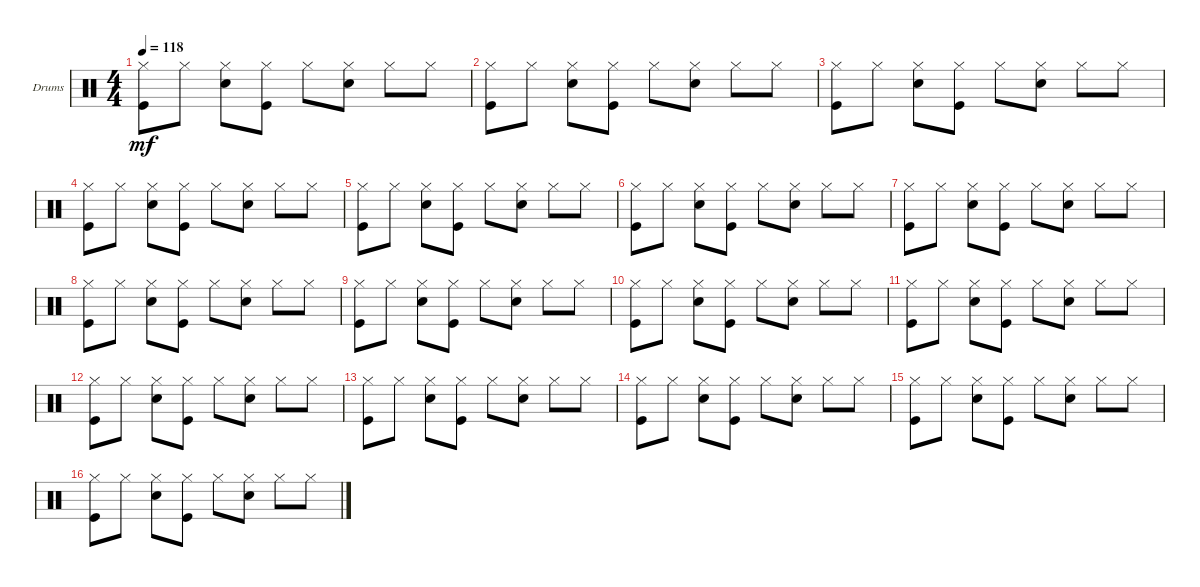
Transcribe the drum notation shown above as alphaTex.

\defaultSystemsLayout 4
\bracketExtendMode groupsimilarinstruments
\firstSystemTrackNameOrientation horizontal
\otherSystemsTrackNameOrientation horizontal
\track ("Drumkit" "Drums") {instrument percussion}
\staff {score}
\articulation defaults
\ts (4 4)
\tempo 118
\clef neutral
\scale
0.474178
\ks c
("Hi-Hat (closed)" "Kick (hit)").8{dy mf} "Hi-Hat (closed)".8 ("Hi-Hat (closed)" "Snare (hit) 2").8 ("Hi-Hat (closed)" "Kick (hit)").8 "Hi-Hat (closed)".8 ("Hi-Hat (closed)" "Snare (hit) 2").8 "Hi-Hat (closed)".8 "Hi-Hat (closed)".8 |
\scale
0.262911 ("Hi-Hat (closed)" "Kick (hit)").8 "Hi-Hat (closed)".8 ("Hi-Hat (closed)" "Snare (hit) 2").8 ("Hi-Hat (closed)" "Kick (hit)").8 "Hi-Hat (closed)".8 ("Hi-Hat (closed)" "Snare (hit) 2").8 "Hi-Hat (closed)".8 "Hi-Hat (closed)".8 |
\scale
0.262911 ("Hi-Hat (closed)" "Kick (hit)").8 "Hi-Hat (closed)".8 ("Hi-Hat (closed)" "Snare (hit) 2").8 ("Hi-Hat (closed)" "Kick (hit)").8 "Hi-Hat (closed)".8 ("Hi-Hat (closed)" "Snare (hit) 2").8 "Hi-Hat (closed)".8 "Hi-Hat (closed)".8 |
\scale
0.333333 ("Hi-Hat (closed)" "Kick (hit)").8 "Hi-Hat (closed)".8 ("Hi-Hat (closed)" "Snare (hit) 2").8 ("Hi-Hat (closed)" "Kick (hit)").8 "Hi-Hat (closed)".8 ("Hi-Hat (closed)" "Snare (hit) 2").8 "Hi-Hat (closed)".8 "Hi-Hat (closed)".8 |
\scale
0.333333 ("Hi-Hat (closed)" "Kick (hit)").8 "Hi-Hat (closed)".8 ("Hi-Hat (closed)" "Snare (hit) 2").8 ("Hi-Hat (closed)" "Kick (hit)").8 "Hi-Hat (closed)".8 ("Hi-Hat (closed)" "Snare (hit) 2").8 "Hi-Hat (closed)".8 "Hi-Hat (closed)".8 |
\scale
0.333333 ("Hi-Hat (closed)" "Kick (hit)").8 "Hi-Hat (closed)".8 ("Hi-Hat (closed)" "Snare (hit) 2").8 ("Hi-Hat (closed)" "Kick (hit)").8 "Hi-Hat (closed)".8 ("Hi-Hat (closed)" "Snare (hit) 2").8 "Hi-Hat (closed)".8 "Hi-Hat (closed)".8 |
\scale
0.333333 ("Hi-Hat (closed)" "Kick (hit)").8 "Hi-Hat (closed)".8 ("Hi-Hat (closed)" "Snare (hit) 2").8 ("Hi-Hat (closed)" "Kick (hit)").8 "Hi-Hat (closed)".8 ("Hi-Hat (closed)" "Snare (hit) 2").8 "Hi-Hat (closed)".8 "Hi-Hat (closed)".8 |
\scale
0.333333 ("Hi-Hat (closed)" "Kick (hit)").8 "Hi-Hat (closed)".8 ("Hi-Hat (closed)" "Snare (hit) 2").8 ("Hi-Hat (closed)" "Kick (hit)").8 "Hi-Hat (closed)".8 ("Hi-Hat (closed)" "Snare (hit) 2").8 "Hi-Hat (closed)".8 "Hi-Hat (closed)".8 |
\scale
0.333333 ("Hi-Hat (closed)" "Kick (hit)").8 "Hi-Hat (closed)".8 ("Hi-Hat (closed)" "Snare (hit) 2").8 ("Hi-Hat (closed)" "Kick (hit)").8 "Hi-Hat (closed)".8 ("Hi-Hat (closed)" "Snare (hit) 2").8 "Hi-Hat (closed)".8 "Hi-Hat (closed)".8 |
\scale
0.333333 ("Hi-Hat (closed)" "Kick (hit)").8 "Hi-Hat (closed)".8 ("Hi-Hat (closed)" "Snare (hit) 2").8 ("Hi-Hat (closed)" "Kick (hit)").8 "Hi-Hat (closed)".8 ("Hi-Hat (closed)" "Snare (hit) 2").8 "Hi-Hat (closed)".8 "Hi-Hat (closed)".8 |
\scale
0.333333 ("Hi-Hat (closed)" "Kick (hit)").8 "Hi-Hat (closed)".8 ("Hi-Hat (closed)" "Snare (hit) 2").8 ("Hi-Hat (closed)" "Kick (hit)").8 "Hi-Hat (closed)".8 ("Hi-Hat (closed)" "Snare (hit) 2").8 "Hi-Hat (closed)".8 "Hi-Hat (closed)".8 |
("Hi-Hat (closed)" "Kick (hit)").8 "Hi-Hat (closed)".8 ("Hi-Hat (closed)" "Snare (hit) 2").8 ("Hi-Hat (closed)" "Kick (hit)").8 "Hi-Hat (closed)".8 ("Hi-Hat (closed)" "Snare (hit) 2").8 "Hi-Hat (closed)".8 "Hi-Hat (closed)".8 |
\scale
0.333333 ("Hi-Hat (closed)" "Kick (hit)").8 "Hi-Hat (closed)".8 ("Hi-Hat (closed)" "Snare (hit) 2").8 ("Hi-Hat (closed)" "Kick (hit)").8 "Hi-Hat (closed)".8 ("Hi-Hat (closed)" "Snare (hit) 2").8 "Hi-Hat (closed)".8 "Hi-Hat (closed)".8 |
\scale
0.333333 ("Hi-Hat (closed)" "Kick (hit)").8 "Hi-Hat (closed)".8 ("Hi-Hat (closed)" "Snare (hit) 2").8 ("Hi-Hat (closed)" "Kick (hit)").8 "Hi-Hat (closed)".8 ("Hi-Hat (closed)" "Snare (hit) 2").8 "Hi-Hat (closed)".8 "Hi-Hat (closed)".8 |
\scale
0.333333 ("Hi-Hat (closed)" "Kick (hit)").8 "Hi-Hat (closed)".8 ("Hi-Hat (closed)" "Snare (hit) 2").8 ("Hi-Hat (closed)" "Kick (hit)").8 "Hi-Hat (closed)".8 ("Hi-Hat (closed)" "Snare (hit) 2").8 "Hi-Hat (closed)".8 "Hi-Hat (closed)".8 |
\scale
0.333333 ("Hi-Hat (closed)" "Kick (hit)").8 "Hi-Hat (closed)".8 ("Hi-Hat (closed)" "Snare (hit) 2").8 ("Hi-Hat (closed)" "Kick (hit)").8 "Hi-Hat (closed)".8 ("Hi-Hat (closed)" "Snare (hit) 2").8 "Hi-Hat (closed)".8 "Hi-Hat (closed)".8
